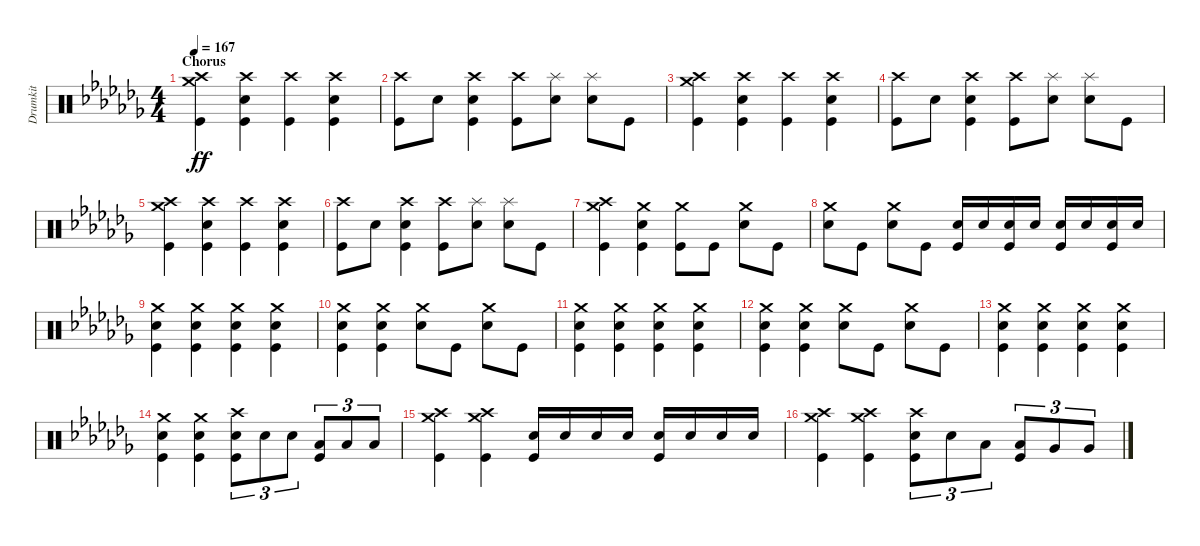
\track ("Drumkit" "Drumkit") {instrument percussion}
\staff {score}
\articulation defaults
\ts (4 4)
\section ("" "Chorus")
\tempo 167
\clef neutral
\ks abminor
("Crash high (hit)" "Crash medium (hit)" "Kick (hit)").4{dy ff} ("Snare (hit) 2" "Kick (hit)" "Crash high (hit)").4 ("Kick (hit)" "Crash high (hit)").4 ("Snare (hit) 2" "Kick (hit)" "Crash high (hit)").4 |
("Kick (hit)" "Crash high (hit)").8 "Snare (hit) 2".8 ("Snare (hit) 2" "Kick (hit)" "Crash high (hit)").4 ("Kick (hit)" "Crash high (hit)").8 ("Snare (hit) 2" "Splash (hit)").8 ("Snare (hit) 2" "Splash (hit)").8 "Kick (hit)".8 |
("Crash high (hit)" "Crash medium (hit)" "Kick (hit)").4 ("Snare (hit) 2" "Kick (hit)" "Crash high (hit)").4 ("Kick (hit)" "Crash high (hit)").4 ("Snare (hit) 2" "Kick (hit)" "Crash high (hit)").4 |
("Kick (hit)" "Crash high (hit)").8 "Snare (hit) 2".8 ("Snare (hit) 2" "Kick (hit)" "Crash high (hit)").4 ("Kick (hit)" "Crash high (hit)").8 ("Snare (hit) 2" "Splash (hit)").8 ("Snare (hit) 2" "Splash (hit)").8 "Kick (hit)".8 |
("Crash high (hit)" "Crash medium (hit)" "Kick (hit)").4 ("Snare (hit) 2" "Kick (hit)" "Crash high (hit)").4 ("Kick (hit)" "Crash high (hit)").4 ("Snare (hit) 2" "Kick (hit)" "Crash high (hit)").4 |
("Kick (hit)" "Crash high (hit)").8 "Snare (hit) 2".8 ("Snare (hit) 2" "Kick (hit)" "Crash high (hit)").4 ("Kick (hit)" "Crash high (hit)").8 ("Snare (hit) 2" "Splash (hit)").8 ("Snare (hit) 2" "Splash (hit)").8 "Kick (hit)".8 |
("Kick (hit)" "Crash medium (hit)" "Crash high (hit)").4 ("Kick (hit)" "Snare (hit) 2" "Crash medium (hit)").4 ("Kick (hit)" "Crash medium (hit)").8 "Kick (hit)".8 ("Snare (hit) 2" "Crash medium (hit)").8 "Kick (hit)".8 |
("Snare (hit) 2" "Crash medium (hit)").8 "Kick (hit)".8 ("Snare (hit) 2" "Crash medium (hit)").8 "Kick (hit)".8 ("Snare (hit) 2" "Kick (hit)").16 "Snare (hit) 2".16 ("Snare (hit) 2" "Kick (hit)").16 "Snare (hit) 2".16 ("Snare (hit) 2" "Kick (hit)").16 "Snare (hit) 2".16 ("Snare (hit) 2" "Kick (hit)").16 "Snare (hit) 2".16 |
("Crash medium (hit)" "Snare (hit) 2" "Kick (hit)").4 ("Crash medium (hit)" "Snare (hit) 2" "Kick (hit)").4 ("Crash medium (hit)" "Snare (hit) 2" "Kick (hit)").4 ("Crash medium (hit)" "Snare (hit) 2" "Kick (hit)").4 |
("Crash medium (hit)" "Snare (hit) 2" "Kick (hit)").4 ("Crash medium (hit)" "Snare (hit) 2" "Kick (hit)").4 ("Crash medium (hit)" "Snare (hit) 2").8 "Kick (hit)".8 ("Crash medium (hit)" "Snare (hit) 2").8 "Kick (hit)".8 |
("Crash medium (hit)" "Snare (hit) 2" "Kick (hit)").4 ("Crash medium (hit)" "Snare (hit) 2" "Kick (hit)").4 ("Crash medium (hit)" "Snare (hit) 2" "Kick (hit)").4 ("Crash medium (hit)" "Snare (hit) 2" "Kick (hit)").4 |
("Crash medium (hit)" "Snare (hit) 2" "Kick (hit)").4 ("Crash medium (hit)" "Snare (hit) 2" "Kick (hit)").4 ("Crash medium (hit)" "Snare (hit) 2").8 "Kick (hit)".8 ("Crash medium (hit)" "Snare (hit) 2").8 "Kick (hit)".8 |
("Crash medium (hit)" "Snare (hit) 2" "Kick (hit)").4 ("Crash medium (hit)" "Snare (hit) 2" "Kick (hit)").4 ("Crash medium (hit)" "Snare (hit) 2" "Kick (hit)").4 ("Crash medium (hit)" "Snare (hit) 2" "Kick (hit)").4 |
("Crash medium (hit)" "Snare (hit) 2" "Kick (hit)").4 ("Crash medium (hit)" "Snare (hit) 2" "Kick (hit)").4 ("Snare (hit) 2" "Crash high (hit)" "Kick (hit)").8{tu (3 2)} "Snare (hit) 2".8{tu (3 2)} "Snare (hit) 2".8{tu (3 2)} ("Low Tom (hit)" "Kick (hit)").8{tu (3 2)} "Low Tom (hit)".8{tu (3 2)} "Low Tom (hit)".8{tu (3 2)} |
("Crash medium (hit)" "Kick (hit)" "Crash high (hit)").4 ("Crash medium (hit)" "Kick (hit)" "Crash high (hit)").4 ("Snare (hit) 2" "Kick (hit)").16 "Snare (hit) 2".16 "Snare (hit) 2".16 "Snare (hit) 2".16 ("Snare (hit) 2" "Kick (hit)").16 "Snare (hit) 2".16 "Snare (hit) 2".16 "Snare (hit) 2".16 |
("Crash medium (hit)" "Kick (hit)" "Crash high (hit)").4 ("Crash medium (hit)" "Kick (hit)" "Crash high (hit)").4 ("Snare (hit) 2" "Crash high (hit)" "Kick (hit)").8{tu (3 2)} "Snare (hit) 2".8{tu (3 2)} "Low Tom (hit)".8{tu (3 2)} ("Low Tom (hit)" "Kick (hit)").8{tu (3 2)} "Very Low Tom (hit)".8{tu (3 2)} "Very Low Tom (hit)".8{tu (3 2)}
